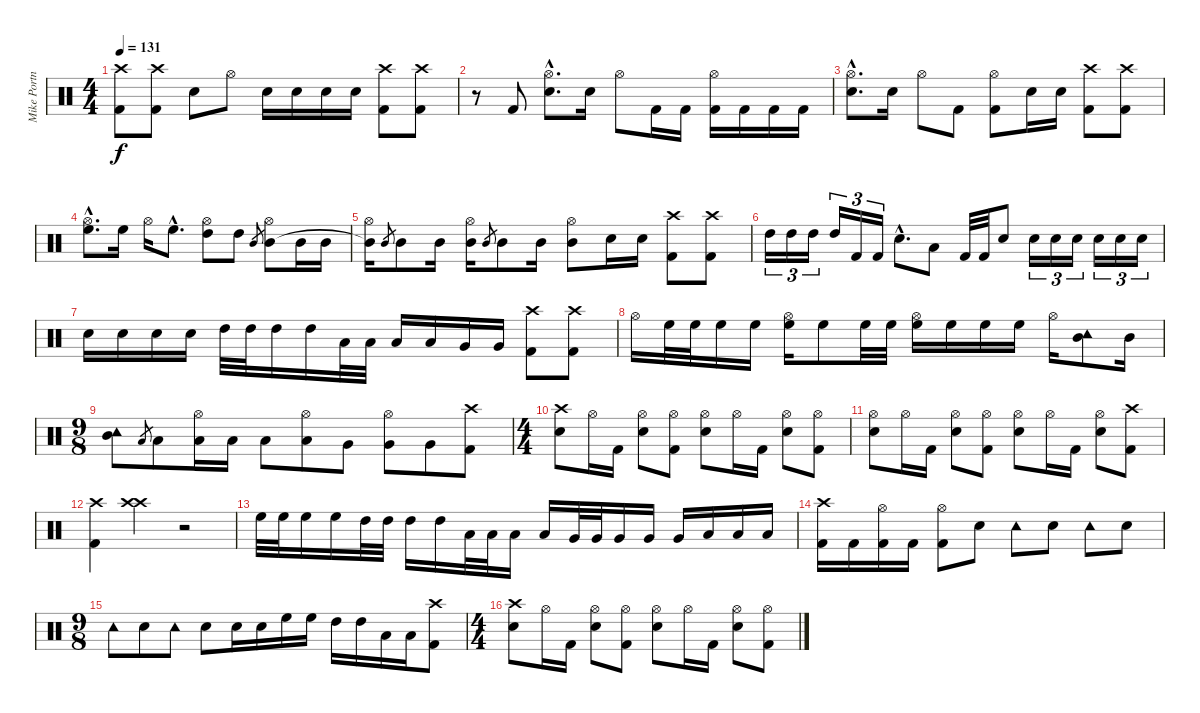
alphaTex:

\track ("Mike Portnoy" "Mike Portn") {instrument percussion}
\staff {score}
\articulation defaults
\ts (4 4)
\tempo 131
\clef neutral
\ks c
("Crash high (hit)" "Kick (hit) 2").8{dy f} ("Crash high (hit)" "Kick (hit) 2").8 "Snare (hit) 2".8 "Hi-Hat (open)".8 "Snare (hit) 2".16 "Snare (hit) 2".16 "Snare (hit) 2".16 "Snare (hit) 2".16 ("Crash high (hit)" "Kick (hit) 2").8 ("Crash high (hit)" "Kick (hit) 2").8 |
r.8 "Kick (hit) 2".8 ("Hi-Hat (open)"{hac} "Snare (hit) 2"{hac}).8{d} "Snare (hit) 2".16 "Hi-Hat (open)".8 "Kick (hit) 2".16 "Kick (hit) 2".16 ("Hi-Hat (open)" "Kick (hit) 2").16 "Kick (hit) 2".16 "Kick (hit) 2".16 "Kick (hit) 2".16 |
("Hi-Hat (open)"{hac} "Snare (hit) 2"{hac}).8{d} "Snare (hit) 2".16 "Hi-Hat (open)".8 "Kick (hit) 2".8 ("Hi-Hat (open)" "Kick (hit) 2").8 "Snare (hit) 2".16 "Snare (hit) 2".16 ("Crash high (hit)" "Kick (hit) 2").8 ("Crash high (hit)" "Kick (hit) 2").8 |
("Hi-Hat (open)"{hac} "High Floor Tom (hit)"{hac}).8{d} "High Floor Tom (hit)".16 "Hi-Hat (open)".16 "High Floor Tom (hit)"{hac}.8{d} ("Hi-Hat (open)" "High Tom (hit)").8 "High Tom (hit)".8 "Mid Tom (hit)".8{gr} ("Hi-Hat (open)" "Mid Tom (hit)").8 "Mid Tom (hit)".16 "Mid Tom (hit)".16 |
("Hi-Hat (open)" "Mid Tom (hit)"{t}).16 "Mid Tom (hit)".8{gr} "Mid Tom (hit)".8 "Mid Tom (hit)".16 ("Hi-Hat (open)" "Mid Tom (hit)").16 "Mid Tom (hit)".8{gr} "Mid Tom (hit)".8 "Mid Tom (hit)".16 ("Hi-Hat (open)" "Mid Tom (hit)").8 "Snare (hit) 2".16 "Snare (hit) 2".16 ("Crash high (hit)" "Kick (hit) 2").8 ("Crash high (hit)" "Kick (hit) 2").8 |
"High Tom (hit)".16{tu (3 2)} "High Tom (hit)".16{tu (3 2)} "High Tom (hit)".16{tu (3 2)} "High Tom (hit)".16{tu (3 2)} "Kick (hit) 2".16{tu (3 2)} "Kick (hit) 2".16{tu (3 2)} "Snare (hit) 2"{hac}.8{d} "Low Tom (hit)".8 "Kick (hit) 2".32 "Kick (hit) 2".32 "Snare (hit) 2".8 "Snare (hit) 2".16{tu (3 2)} "Snare (hit) 2".16{tu (3 2)} "Snare (hit) 2".16{tu (3 2)} "Snare (hit) 2".16{tu (3 2)} "Snare (hit) 2".16{tu (3 2)} "Snare (hit) 2".16{tu (3 2)} |
"Snare (hit) 2".16 "Snare (hit) 2".16 "Snare (hit) 2".16 "Snare (hit) 2".16 "High Tom (hit)".32 "High Tom (hit)".32 "High Tom (hit)".16 "High Tom (hit)".16 "Low Tom (hit)".32 "Low Tom (hit)".32 "Low Tom (hit)".16 "Low Tom (hit)".16 "Very Low Tom (hit)".16 "Very Low Tom (hit)".16 ("Crash high (hit)" "Kick (hit) 2").8 ("Crash high (hit)" "Kick (hit) 2").8 |
"Hi-Hat (open)".16 "High Floor Tom (hit)".32 "High Floor Tom (hit)".32 "High Floor Tom (hit)".16 "High Floor Tom (hit)".16 ("Hi-Hat (open)" "High Floor Tom (hit)").16 "High Floor Tom (hit)".8 "High Floor Tom (hit)".32 "High Floor Tom (hit)".32 ("Hi-Hat (open)" "High Floor Tom (hit)").16 "High Floor Tom (hit)".16 "High Floor Tom (hit)".16 "High Floor Tom (hit)".16 "Hi-Hat (open)".16 ("Tambourine (hit)" "Mid Tom (hit)").8 "Mid Tom (hit)".16 |
\ts (9 8)
("Tambourine (hit)" "Mid Tom (hit)").8 "Low Tom (hit)".8{gr} "Low Tom (hit)".8 ("Hi-Hat (open)" "Low Tom (hit)").16 "Low Tom (hit)".16 "Low Tom (hit)".8 ("Hi-Hat (open)" "Low Tom (hit)").8 "Very Low Tom (hit)".8 ("Hi-Hat (open)" "Very Low Tom (hit)").8 "Very Low Tom (hit)".8 ("Crash high (hit)" "Kick (hit) 2").8 |
\ts (4 4)
("Crash high (hit)" "Snare (hit) 2").8 "Hi-Hat (open)".16 "Kick (hit) 2".16 ("Hi-Hat (open)" "Snare (hit) 2").8 ("Hi-Hat (open)" "Kick (hit) 2").8 ("Hi-Hat (open)" "Snare (hit) 2").8 "Hi-Hat (open)".16 "Kick (hit) 2".16 ("Hi-Hat (open)" "Snare (hit) 2").8 ("Hi-Hat (open)" "Kick (hit) 2").8 |
("Hi-Hat (open)" "Snare (hit) 2").8 "Hi-Hat (open)".16 "Kick (hit) 2".16 ("Hi-Hat (open)" "Snare (hit) 2").8 ("Hi-Hat (open)" "Kick (hit) 2").8 ("Hi-Hat (open)" "Snare (hit) 2").8 "Hi-Hat (open)".16 "Kick (hit) 2".16 ("Hi-Hat (open)" "Snare (hit) 2").8 ("Crash high (hit)" "Kick (hit) 2").8 |
("Crash high (hit)" "Kick (hit) 2").4 ("Crash high (hit)" "Crash high (hit)").4 r.2 |
"High Floor Tom (hit)".32 "High Floor Tom (hit)".32 "High Floor Tom (hit)".16 "High Floor Tom (hit)".16 "High Tom (hit)".32 "High Tom (hit)".32 "High Tom (hit)".16 "High Tom (hit)".16 "Low Tom (hit)".32 "Low Tom (hit)".32 "Low Tom (hit)".16 "Low Tom (hit)".16 "Very Low Tom (hit)".32 "Very Low Tom (hit)".32 "Very Low Tom (hit)".16 "Very Low Tom (hit)".16 "Very Low Tom (hit)".16 "Low Floor Tom (hit)".16 "Low Floor Tom (hit)".16 "Low Floor Tom (hit)".16 |
("Crash high (hit)" "Kick (hit) 2").16 "Kick (hit) 2".16 ("Hi-Hat (open)" "Kick (hit) 2").16 "Kick (hit) 2".16 ("Hi-Hat (open)" "Kick (hit) 2").8 "Snare (hit) 2".8 "Tambourine (hit)".8 "Snare (hit) 2".8 "Tambourine (hit)".8 "Snare (hit) 2".8 |
\ts (9 8)
"Tambourine (hit)".8 "Snare (hit) 2".8 "Tambourine (hit)".8 "Snare (hit) 2".8 "Snare (hit) 2".16 "Snare (hit) 2".16 "High Floor Tom (hit)".16 "High Floor Tom (hit)".16 "High Tom (hit)".16 "High Tom (hit)".16 "Low Tom (hit)".16 "Low Tom (hit)".16 ("Crash high (hit)" "Kick (hit) 2").8 |
\ts (4 4)
("Crash high (hit)" "Snare (hit) 2").8 "Hi-Hat (open)".16 "Kick (hit) 2".16 ("Hi-Hat (open)" "Snare (hit) 2").8 ("Hi-Hat (open)" "Kick (hit) 2").8 ("Hi-Hat (open)" "Snare (hit) 2").8 "Hi-Hat (open)".16 "Kick (hit) 2".16 ("Hi-Hat (open)" "Snare (hit) 2").8 ("Hi-Hat (open)" "Kick (hit) 2").8
